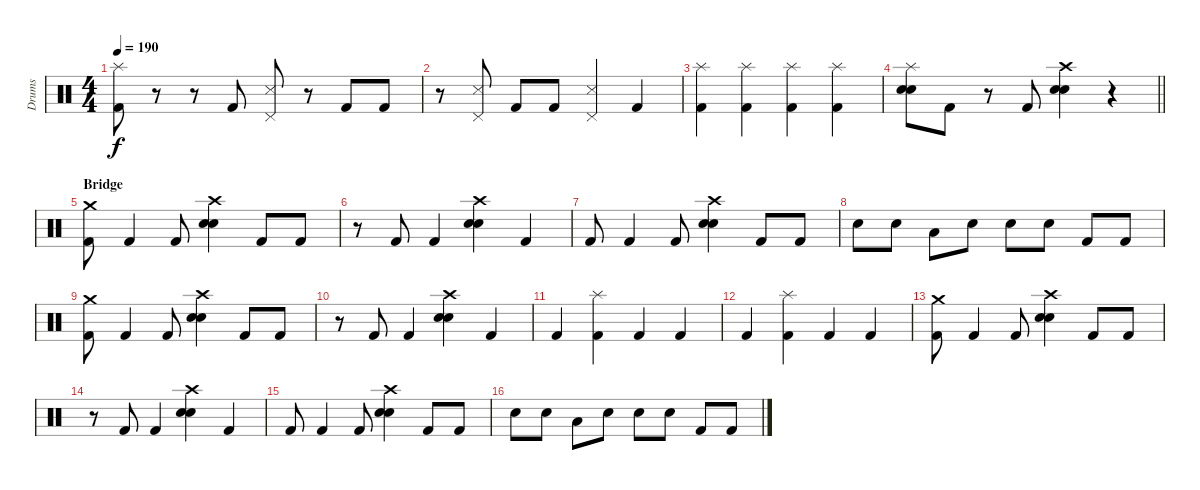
\track ("Drums" "Drums") {instrument percussion}
\staff
\articulation defaults
\ts (4 4)
\tempo 190
\clef neutral
\ks c
("Splash (hit)" "Kick (hit) 2").8{dy f} r.8 r.8 "Kick (hit) 2".8 ("Pedal Hi-Hat (hit)" "Snare (side stick) 3").8 r.8 "Kick (hit) 2".8 "Kick (hit) 2".8 |
r.8 ("Pedal Hi-Hat (hit)" "Snare (side stick) 3").8 "Kick (hit) 2".8 "Kick (hit) 2".8 ("Pedal Hi-Hat (hit)" "Snare (side stick) 3").4 "Kick (hit) 2".4 |
("Splash (hit)" "Kick (hit) 2").4 ("Splash (hit)" "Kick (hit) 2").4 ("Splash (hit)" "Kick (hit) 2").4 ("Splash (hit)" "Kick (hit) 2").4 |
\barLineRight lightlight
("Splash (hit)" "Electric Snare (hit)" "Snare (hit) 2").8 "Kick (hit) 2".8 r.8 "Kick (hit) 2".8 ("Crash high (hit)" "Electric Snare (hit)" "Snare (hit) 2").4 r.4 |
\section ("" "Bridge")
("Crash medium (hit)" "Kick (hit) 2").8 "Kick (hit) 2".4 "Kick (hit) 2".8 ("Crash high (hit)" "Electric Snare (hit)" "Snare (hit) 2").4 "Kick (hit) 2".8 "Kick (hit) 2".8 |
r.8 "Kick (hit) 2".8 "Kick (hit) 2".4 ("Crash high (hit)" "Electric Snare (hit)" "Snare (hit) 2").4 "Kick (hit) 2".4 |
"Kick (hit) 2".8 "Kick (hit) 2".4 "Kick (hit) 2".8 ("Crash high (hit)" "Electric Snare (hit)" "Snare (hit) 2").4 "Kick (hit) 2".8 "Kick (hit) 2".8 |
"Electric Snare (hit)".8 "Electric Snare (hit)".8 "Low Tom (hit)".8 "Electric Snare (hit)".8 "Electric Snare (hit)".8 "Electric Snare (hit)".8 "Kick (hit) 2".8 "Kick (hit) 2".8 |
("Crash medium (hit)" "Kick (hit) 2").8 "Kick (hit) 2".4 "Kick (hit) 2".8 ("Crash high (hit)" "Electric Snare (hit)" "Snare (hit) 2").4 "Kick (hit) 2".8 "Kick (hit) 2".8 |
r.8 "Kick (hit) 2".8 "Kick (hit) 2".4 ("Crash high (hit)" "Electric Snare (hit)" "Snare (hit) 2").4 "Kick (hit) 2".4 |
"Kick (hit) 2".4 ("Splash (hit)" "Kick (hit) 2").4 "Kick (hit) 2".4 "Kick (hit) 2".4 |
"Kick (hit) 2".4 ("Splash (hit)" "Kick (hit) 2").4 "Kick (hit) 2".4 "Kick (hit) 2".4 |
("Crash medium (hit)" "Kick (hit) 2").8 "Kick (hit) 2".4 "Kick (hit) 2".8 ("Crash high (hit)" "Electric Snare (hit)" "Snare (hit) 2").4 "Kick (hit) 2".8 "Kick (hit) 2".8 |
r.8 "Kick (hit) 2".8 "Kick (hit) 2".4 ("Crash high (hit)" "Electric Snare (hit)" "Snare (hit) 2").4 "Kick (hit) 2".4 |
"Kick (hit) 2".8 "Kick (hit) 2".4 "Kick (hit) 2".8 ("Crash high (hit)" "Electric Snare (hit)" "Snare (hit) 2").4 "Kick (hit) 2".8 "Kick (hit) 2".8 |
"Electric Snare (hit)".8 "Electric Snare (hit)".8 "Low Tom (hit)".8 "Electric Snare (hit)".8 "Electric Snare (hit)".8 "Electric Snare (hit)".8 "Kick (hit) 2".8 "Kick (hit) 2".8
